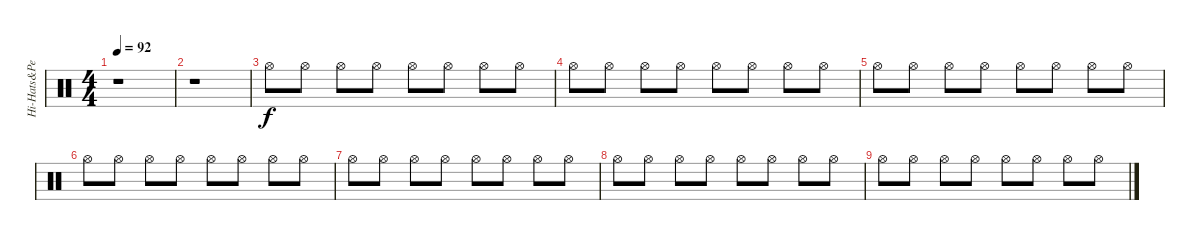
\track ("Hi-Hats&Percussion" "Hi-Hats&Pe") {instrument percussion}
\staff {score}
\articulation defaults
\ts (4 4)
\tempo 92
\clef neutral
\ks c
r.1{dy f} |
r.1 |
"Hi-Hat (open)".8 "Hi-Hat (open)".8 "Hi-Hat (open)".8 "Hi-Hat (open)".8 "Hi-Hat (open)".8 "Hi-Hat (open)".8 "Hi-Hat (open)".8 "Hi-Hat (open)".8 |
"Hi-Hat (open)".8 "Hi-Hat (open)".8 "Hi-Hat (open)".8 "Hi-Hat (open)".8 "Hi-Hat (open)".8 "Hi-Hat (open)".8 "Hi-Hat (open)".8 "Hi-Hat (open)".8 |
"Hi-Hat (open)".8 "Hi-Hat (open)".8 "Hi-Hat (open)".8 "Hi-Hat (open)".8 "Hi-Hat (open)".8 "Hi-Hat (open)".8 "Hi-Hat (open)".8 "Hi-Hat (open)".8 |
"Hi-Hat (open)".8 "Hi-Hat (open)".8 "Hi-Hat (open)".8 "Hi-Hat (open)".8 "Hi-Hat (open)".8 "Hi-Hat (open)".8 "Hi-Hat (open)".8 "Hi-Hat (open)".8 |
"Hi-Hat (open)".8 "Hi-Hat (open)".8 "Hi-Hat (open)".8 "Hi-Hat (open)".8 "Hi-Hat (open)".8 "Hi-Hat (open)".8 "Hi-Hat (open)".8 "Hi-Hat (open)".8 |
"Hi-Hat (open)".8 "Hi-Hat (open)".8 "Hi-Hat (open)".8 "Hi-Hat (open)".8 "Hi-Hat (open)".8 "Hi-Hat (open)".8 "Hi-Hat (open)".8 "Hi-Hat (open)".8 |
"Hi-Hat (open)".8 "Hi-Hat (open)".8 "Hi-Hat (open)".8 "Hi-Hat (open)".8 "Hi-Hat (open)".8 "Hi-Hat (open)".8 "Hi-Hat (open)".8 "Hi-Hat (open)".8
